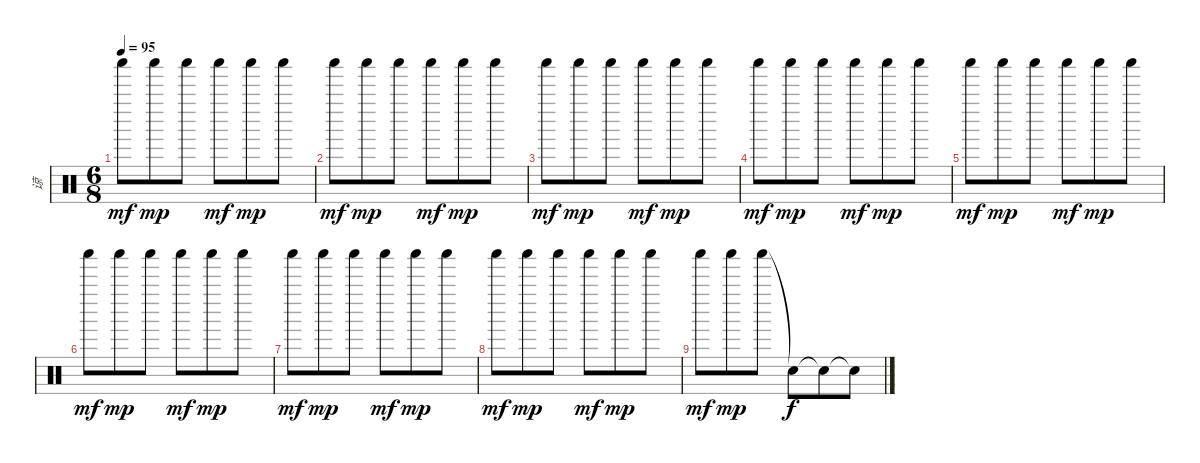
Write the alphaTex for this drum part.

\track ("谅" "谅") {instrument percussion}
\staff {score}
\articulation defaults
\ts (6 8)
\tempo 95
\clef neutral
\ks c "Shaker (hit)".8{dy mf} "Shaker (hit)".8{dy mp} "Shaker (hit)".8 "Shaker (hit)".8{dy mf} "Shaker (hit)".8{dy mp} "Shaker (hit)".8
|
"Shaker (hit)".8{dy mf} "Shaker (hit)".8{dy mp} "Shaker (hit)".8 "Shaker (hit)".8{dy mf} "Shaker (hit)".8{dy mp} "Shaker (hit)".8 |
"Shaker (hit)".8{dy mf} "Shaker (hit)".8{dy mp} "Shaker (hit)".8 "Shaker (hit)".8{dy mf} "Shaker (hit)".8{dy mp} "Shaker (hit)".8 |
"Shaker (hit)".8{dy mf} "Shaker (hit)".8{dy mp} "Shaker (hit)".8 "Shaker (hit)".8{dy mf} "Shaker (hit)".8{dy mp} "Shaker (hit)".8 |
"Shaker (hit)".8{dy mf} "Shaker (hit)".8{dy mp} "Shaker (hit)".8 "Shaker (hit)".8{dy mf} "Shaker (hit)".8{dy mp} "Shaker (hit)".8 |
"Shaker (hit)".8{dy mf} "Shaker (hit)".8{dy mp} "Shaker (hit)".8 "Shaker (hit)".8{dy mf} "Shaker (hit)".8{dy mp} "Shaker (hit)".8 |
"Shaker (hit)".8{dy mf} "Shaker (hit)".8{dy mp} "Shaker (hit)".8 "Shaker (hit)".8{dy mf} "Shaker (hit)".8{dy mp} "Shaker (hit)".8 |
"Shaker (hit)".8{dy mf} "Shaker (hit)".8{dy mp} "Shaker (hit)".8 "Shaker (hit)".8{dy mf} "Shaker (hit)".8{dy mp} "Shaker (hit)".8 |
"Shaker (hit)".8{dy mf} "Shaker (hit)".8{dy mp} "Shaker (hit)".8 "Snare (hit)"{t}.8{dy f} "Snare (hit)"{t}.8 "Snare (hit)"{t}.8
